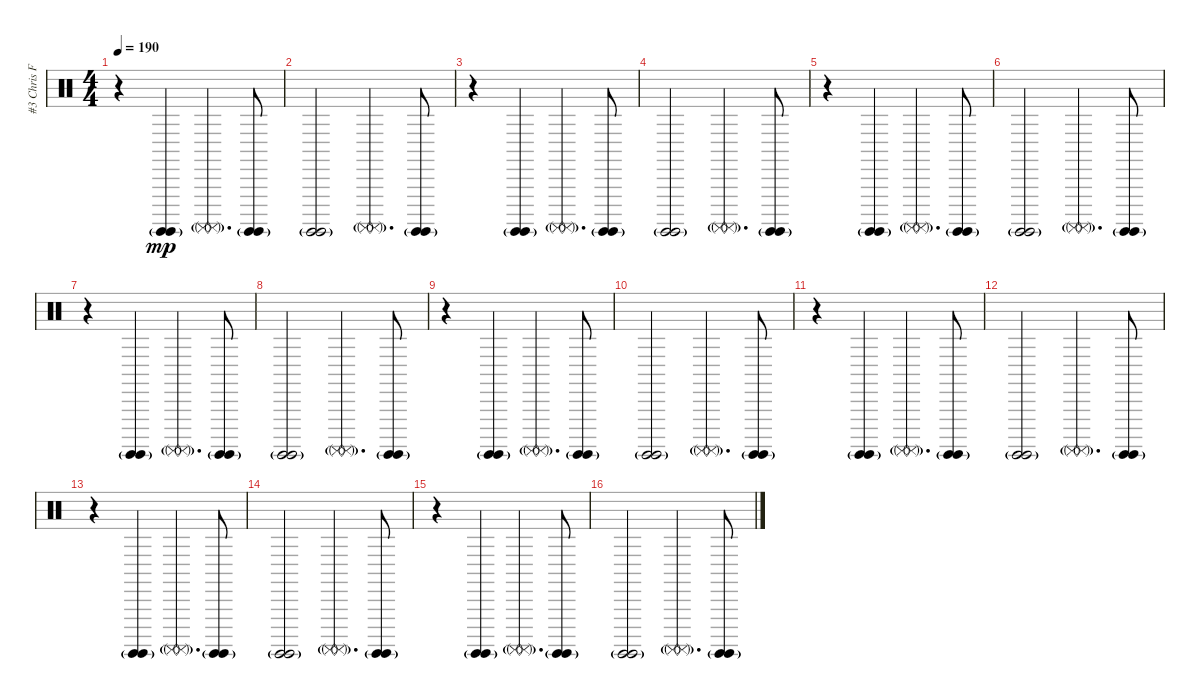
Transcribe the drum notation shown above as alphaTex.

\track ("#3 Chris Fehn" "#3 Chris F") {instrument percussion}
\staff {score}
\articulation defaults
\ts (4 4)
\tempo 190
\clef neutral
\ks c
r.4{dy mp} ("Surdo (hit)"{g} "Surdo (hit)"{g}).4 ("Surdo (mute)"{g} "Surdo (mute)"{g}).4{d} ("Surdo (hit)"{g} "Surdo (hit)"{g}).8 |
("Surdo (hit)"{g} "Surdo (hit)"{g}).2 ("Surdo (mute)"{g} "Surdo (mute)"{g}).4{d} ("Surdo (hit)"{g} "Surdo (hit)"{g}).8 |
r.4 ("Surdo (hit)"{g} "Surdo (hit)"{g}).4 ("Surdo (mute)"{g} "Surdo (mute)"{g}).4{d} ("Surdo (hit)"{g} "Surdo (hit)"{g}).8 |
("Surdo (hit)"{g} "Surdo (hit)"{g}).2 ("Surdo (mute)"{g} "Surdo (mute)"{g}).4{d} ("Surdo (hit)"{g} "Surdo (hit)"{g}).8 |
r.4 ("Surdo (hit)"{g} "Surdo (hit)"{g}).4 ("Surdo (mute)"{g} "Surdo (mute)"{g}).4{d} ("Surdo (hit)"{g} "Surdo (hit)"{g}).8 |
("Surdo (hit)"{g} "Surdo (hit)"{g}).2 ("Surdo (mute)"{g} "Surdo (mute)"{g}).4{d} ("Surdo (hit)"{g} "Surdo (hit)"{g}).8 |
r.4 ("Surdo (hit)"{g} "Surdo (hit)"{g}).4 ("Surdo (mute)"{g} "Surdo (mute)"{g}).4{d} ("Surdo (hit)"{g} "Surdo (hit)"{g}).8 |
("Surdo (hit)"{g} "Surdo (hit)"{g}).2 ("Surdo (mute)"{g} "Surdo (mute)"{g}).4{d} ("Surdo (hit)"{g} "Surdo (hit)"{g}).8 |
r.4 ("Surdo (hit)"{g} "Surdo (hit)"{g}).4 ("Surdo (mute)"{g} "Surdo (mute)"{g}).4{d} ("Surdo (hit)"{g} "Surdo (hit)"{g}).8 |
("Surdo (hit)"{g} "Surdo (hit)"{g}).2 ("Surdo (mute)"{g} "Surdo (mute)"{g}).4{d} ("Surdo (hit)"{g} "Surdo (hit)"{g}).8 |
r.4 ("Surdo (hit)"{g} "Surdo (hit)"{g}).4 ("Surdo (mute)"{g} "Surdo (mute)"{g}).4{d} ("Surdo (hit)"{g} "Surdo (hit)"{g}).8 |
("Surdo (hit)"{g} "Surdo (hit)"{g}).2 ("Surdo (mute)"{g} "Surdo (mute)"{g}).4{d} ("Surdo (hit)"{g} "Surdo (hit)"{g}).8 |
r.4 ("Surdo (hit)"{g} "Surdo (hit)"{g}).4 ("Surdo (mute)"{g} "Surdo (mute)"{g}).4{d} ("Surdo (hit)"{g} "Surdo (hit)"{g}).8 |
("Surdo (hit)"{g} "Surdo (hit)"{g}).2 ("Surdo (mute)"{g} "Surdo (mute)"{g}).4{d} ("Surdo (hit)"{g} "Surdo (hit)"{g}).8 |
r.4 ("Surdo (hit)"{g} "Surdo (hit)"{g}).4 ("Surdo (mute)"{g} "Surdo (mute)"{g}).4{d} ("Surdo (hit)"{g} "Surdo (hit)"{g}).8 |
("Surdo (hit)"{g} "Surdo (hit)"{g}).2 ("Surdo (mute)"{g} "Surdo (mute)"{g}).4{d} ("Surdo (hit)"{g} "Surdo (hit)"{g}).8
